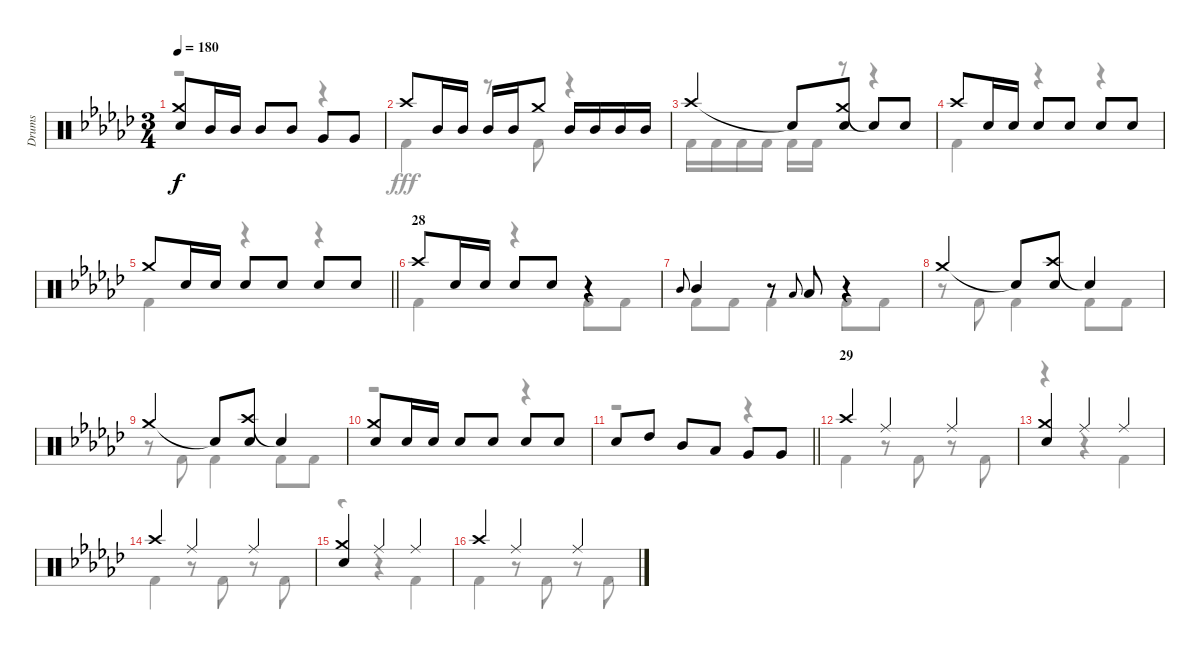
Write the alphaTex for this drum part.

\track ("Drums" "Drums") {instrument percussion}
\staff {score}
\articulation defaults
\voice
\ts (3 4)
\tempo 180
\clef neutral
\ks gb
("Crash medium (hit)" "Snare (hit) 2").8{dy f} "Mid Tom (hit)".16 "Mid Tom (hit)".16 "Mid Tom (hit)".8 "Mid Tom (hit)".8 "Very Low Tom (hit)".8 "Very Low Tom (hit)".8 |
"Crash high (hit)".8 "Mid Tom (hit)".16 "Mid Tom (hit)".16 "Mid Tom (hit)".16 "Mid Tom (hit)".16 "Crash medium (hit)".8 "Mid Tom (hit)".16 "Mid Tom (hit)".16 "Mid Tom (hit)".16 "Mid Tom (hit)".16 |
"Crash high (hit)".4 "Snare (hit)"{t}.8 ("Crash medium (hit)" "Snare (hit) 2").8 "Snare (hit)"{t}.8 "Snare (hit) 2".8 |
"Crash high (hit)".8 "Snare (hit) 2".16 "Snare (hit) 2".16 "Snare (hit) 2".8 "Snare (hit) 2".8 "Snare (hit) 2".8 "Snare (hit) 2".8 |
\barLineRight lightlight "Crash medium (hit)".8 "Snare (hit) 2".16 "Snare (hit) 2".16 "Snare (hit) 2".8 "Snare (hit) 2".8 "Snare (hit) 2".8 "Snare (hit) 2".8
|
\section ("" "28")
"Crash high (hit)".8 "Snare (hit) 2".16 "Snare (hit) 2".16 "Snare (hit) 2".8 "Snare (hit) 2".8 r.4 |
"Mid Tom (hit)".8{gr onbeat} "Mid Tom (hit)".4 r.8 "Low Tom (hit)".8{gr onbeat} "Low Tom (hit)".8 r.4 |
"Crash medium (hit)".4 "Snare (hit)"{t}.8 ("Crash high (hit)" "Snare (hit) 2").8 "Snare (hit)"{t}.4 |
"Crash medium (hit)".4 "Snare (hit)"{t}.8 ("Crash high (hit)" "Snare (hit) 2").8 "Snare (hit)"{t}.4 |
("Crash medium (hit)" "Snare (hit) 2").8 "Snare (hit) 2".16 "Snare (hit) 2".16 "Snare (hit) 2".8 "Snare (hit) 2".8 "Snare (hit) 2".8 "Snare (hit) 2".8 |
\barLineRight lightlight "Snare (hit) 2".8 "High Tom (hit)".8 "Mid Tom (hit)".8 "Low Tom (hit)".8 "Very Low Tom (hit)".8 "Very Low Tom (hit)".8
|
\section ("" "29")
"Crash high (hit)".4 "Ride (middle)".4 "Ride (middle)".4 |
("Crash medium (hit)" "Snare (hit) 2").4 "Ride (middle)".4 "Ride (middle)".4 |
"Crash high (hit)".4 "Ride (middle)".4 "Ride (middle)".4 |
("Crash medium (hit)" "Snare (hit) 2").4 "Ride (middle)".4 "Ride (middle)".4 |
"Crash high (hit)".4 "Ride (middle)".4 "Ride (middle)".4
\voice
\clef neutral
\ottava regular
\simile none
\ks gb
r.2{dy fff} r.4 |
"Kick (hit) 2".4 r.8 "Kick (hit) 2".8 r.4 |
"Kick (hit) 2".16 "Kick (hit) 2".16 "Kick (hit) 2".16 "Kick (hit) 2".16 "Kick (hit) 2".16 "Kick (hit) 2".16 r.8 r.4 |
"Kick (hit) 2".4 r.4 r.4 |
\barLineRight lightlight "Kick (hit) 2".4
r.4 r.4 |
"Kick (hit) 2".4 r.4 "Kick (hit) 2".8 "Kick (hit) 2".8 |
"Kick (hit) 2".8 "Kick (hit) 2".8 "Kick (hit) 2".4 "Kick (hit) 2".8 "Kick (hit) 2".8 |
r.8 "Kick (hit) 2".8 "Kick (hit) 2".4 "Kick (hit) 2".8 "Kick (hit) 2".8 |
r.8 "Kick (hit) 2".8 "Kick (hit) 2".4 "Kick (hit) 2".8 "Kick (hit) 2".8 |
r.2 r.4 |
\barLineRight lightlight
r.2 r.4 |
"Kick (hit) 2".4 r.8 "Kick (hit) 2".8 r.8 "Kick (hit) 2".8 |
r.4 r.4 "Kick (hit) 2".4 |
"Kick (hit) 2".4 r.8 "Kick (hit) 2".8 r.8 "Kick (hit) 2".8 |
r.4 r.4 "Kick (hit) 2".4 |
"Kick (hit) 2".4 r.8 "Kick (hit) 2".8 r.8 "Kick (hit) 2".8
